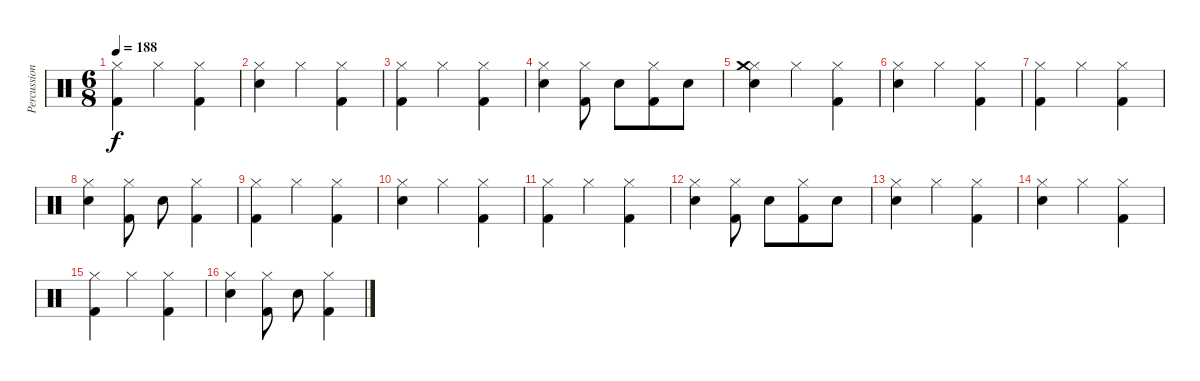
\track ("Percussion" "Percussion") {instrument percussion}
\staff {score}
\articulation defaults
\ts (6 8)
\tempo 188
\clef neutral
\ks c
("Hi-Hat (closed)" "Kick (hit) 2").4{dy f} "Hi-Hat (closed)".4 ("Hi-Hat (closed)" "Kick (hit) 2").4 |
("Hi-Hat (closed)" "Snare (hit) 2").4 "Hi-Hat (closed)".4 ("Hi-Hat (closed)" "Kick (hit) 2").4 |
("Hi-Hat (closed)" "Kick (hit) 2").4 "Hi-Hat (closed)".4 ("Hi-Hat (closed)" "Kick (hit) 2").4 |
("Hi-Hat (closed)" "Snare (hit) 2").4 ("Hi-Hat (closed)" "Kick (hit) 2").8 "Electric Snare (hit)".8 ("Hi-Hat (closed)" "Kick (hit) 2").8 "Electric Snare (hit)".8 |
("Hi-Hat (closed)" "Crash medium (hit)" "Snare (hit) 2").4 "Hi-Hat (closed)".4 ("Hi-Hat (closed)" "Kick (hit) 2").4 |
("Hi-Hat (closed)" "Snare (hit) 2").4 "Hi-Hat (closed)".4 ("Hi-Hat (closed)" "Kick (hit) 2").4 |
("Hi-Hat (closed)" "Kick (hit) 2").4 "Hi-Hat (closed)".4 ("Hi-Hat (closed)" "Kick (hit) 2").4 |
("Hi-Hat (closed)" "Snare (hit) 2").4 ("Hi-Hat (closed)" "Kick (hit) 2").8 "Electric Snare (hit)".8 ("Hi-Hat (closed)" "Kick (hit) 2").4 |
("Hi-Hat (closed)" "Kick (hit) 2").4 "Hi-Hat (closed)".4 ("Hi-Hat (closed)" "Kick (hit) 2").4 |
("Hi-Hat (closed)" "Snare (hit) 2").4 "Hi-Hat (closed)".4 ("Hi-Hat (closed)" "Kick (hit) 2").4 |
("Hi-Hat (closed)" "Kick (hit) 2").4 "Hi-Hat (closed)".4 ("Hi-Hat (closed)" "Kick (hit) 2").4 |
("Hi-Hat (closed)" "Snare (hit) 2").4 ("Hi-Hat (closed)" "Kick (hit) 2").8 "Electric Snare (hit)".8 ("Hi-Hat (closed)" "Kick (hit) 2").8 "Electric Snare (hit)".8 |
("Hi-Hat (closed)" "Snare (hit) 2").4 "Hi-Hat (closed)".4 ("Hi-Hat (closed)" "Kick (hit) 2").4 |
("Hi-Hat (closed)" "Snare (hit) 2").4 "Hi-Hat (closed)".4 ("Hi-Hat (closed)" "Kick (hit) 2").4 |
("Hi-Hat (closed)" "Kick (hit) 2").4 "Hi-Hat (closed)".4 ("Hi-Hat (closed)" "Kick (hit) 2").4 |
("Hi-Hat (closed)" "Snare (hit) 2").4 ("Hi-Hat (closed)" "Kick (hit) 2").8 "Electric Snare (hit)".8 ("Hi-Hat (closed)" "Kick (hit) 2").4
